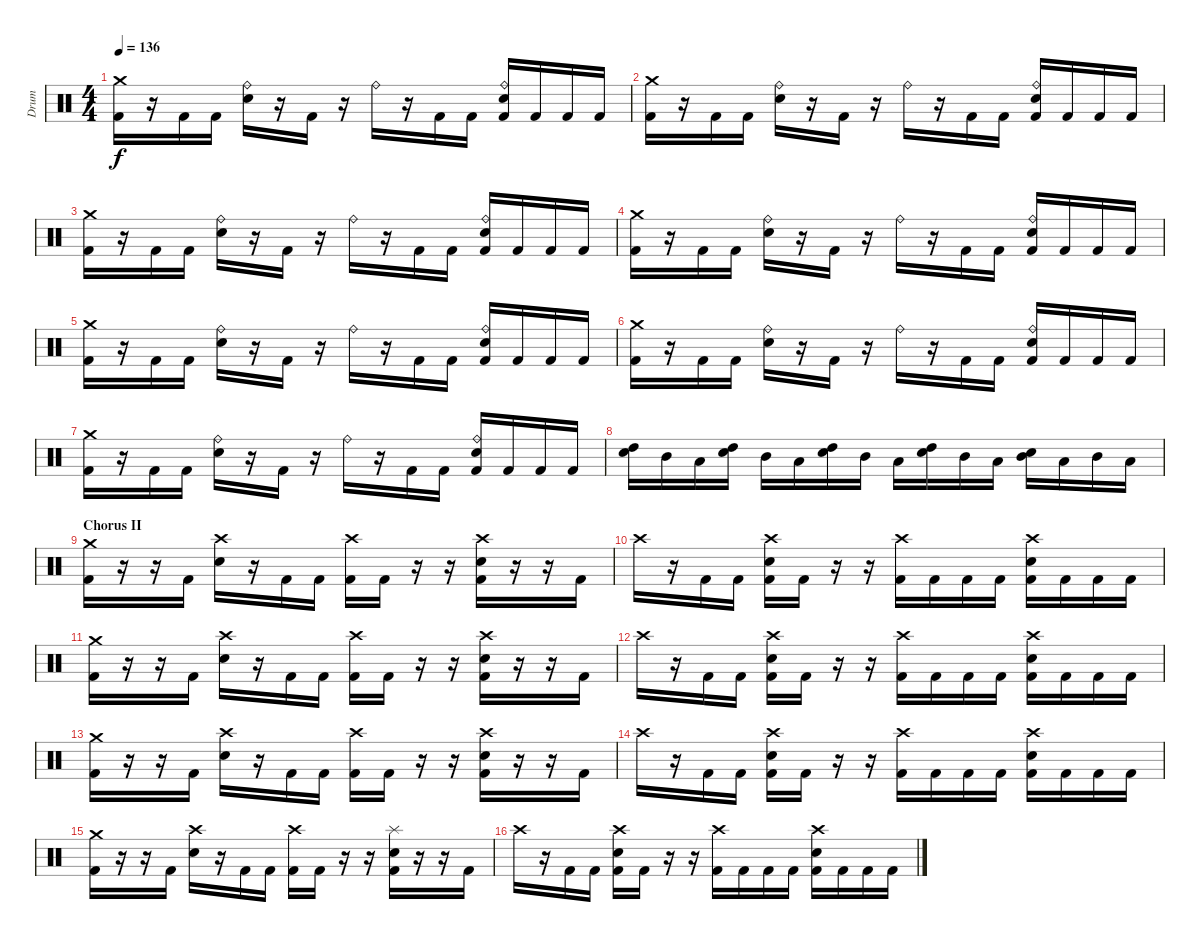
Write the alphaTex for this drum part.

\track ("Drum" "Drum") {instrument percussion}
\staff {score}
\articulation defaults
\ts (4 4)
\tempo 136
\clef neutral
\ks c
("Crash medium (hit)" "Kick (hit) 2").16{dy f} r.16 "Kick (hit) 2".16 "Kick (hit) 2".16 ("Ride (bell)" "Snare (hit) 2").16 r.16 "Kick (hit) 2".16 r.16 "Ride (bell)".16 r.16 "Kick (hit) 2".16 "Kick (hit) 2".16 ("Ride (bell)" "Snare (hit) 2" "Kick (hit) 2").16 "Kick (hit) 2".16 "Kick (hit) 2".16 "Kick (hit) 2".16 |
("Crash medium (hit)" "Kick (hit) 2").16 r.16 "Kick (hit) 2".16 "Kick (hit) 2".16 ("Ride (bell)" "Snare (hit) 2").16 r.16 "Kick (hit) 2".16 r.16 "Ride (bell)".16 r.16 "Kick (hit) 2".16 "Kick (hit) 2".16 ("Ride (bell)" "Snare (hit) 2" "Kick (hit) 2").16 "Kick (hit) 2".16 "Kick (hit) 2".16 "Kick (hit) 2".16 |
("Crash medium (hit)" "Kick (hit) 2").16 r.16 "Kick (hit) 2".16 "Kick (hit) 2".16 ("Ride (bell)" "Snare (hit) 2").16 r.16 "Kick (hit) 2".16 r.16 "Ride (bell)".16 r.16 "Kick (hit) 2".16 "Kick (hit) 2".16 ("Ride (bell)" "Snare (hit) 2" "Kick (hit) 2").16 "Kick (hit) 2".16 "Kick (hit) 2".16 "Kick (hit) 2".16 |
("Crash medium (hit)" "Kick (hit) 2").16 r.16 "Kick (hit) 2".16 "Kick (hit) 2".16 ("Ride (bell)" "Snare (hit) 2").16 r.16 "Kick (hit) 2".16 r.16 "Ride (bell)".16 r.16 "Kick (hit) 2".16 "Kick (hit) 2".16 ("Ride (bell)" "Snare (hit) 2" "Kick (hit) 2").16 "Kick (hit) 2".16 "Kick (hit) 2".16 "Kick (hit) 2".16 |
("Crash medium (hit)" "Kick (hit) 2").16 r.16 "Kick (hit) 2".16 "Kick (hit) 2".16 ("Ride (bell)" "Snare (hit) 2").16 r.16 "Kick (hit) 2".16 r.16 "Ride (bell)".16 r.16 "Kick (hit) 2".16 "Kick (hit) 2".16 ("Ride (bell)" "Snare (hit) 2" "Kick (hit) 2").16 "Kick (hit) 2".16 "Kick (hit) 2".16 "Kick (hit) 2".16 |
("Crash medium (hit)" "Kick (hit) 2").16 r.16 "Kick (hit) 2".16 "Kick (hit) 2".16 ("Ride (bell)" "Snare (hit) 2").16 r.16 "Kick (hit) 2".16 r.16 "Ride (bell)".16 r.16 "Kick (hit) 2".16 "Kick (hit) 2".16 ("Ride (bell)" "Snare (hit) 2" "Kick (hit) 2").16 "Kick (hit) 2".16 "Kick (hit) 2".16 "Kick (hit) 2".16 |
("Crash medium (hit)" "Kick (hit) 2").16 r.16 "Kick (hit) 2".16 "Kick (hit) 2".16 ("Ride (bell)" "Snare (hit) 2").16 r.16 "Kick (hit) 2".16 r.16 "Ride (bell)".16 r.16 "Kick (hit) 2".16 "Kick (hit) 2".16 ("Ride (bell)" "Snare (hit) 2" "Kick (hit) 2").16 "Kick (hit) 2".16 "Kick (hit) 2".16 "Kick (hit) 2".16 |
("Snare (hit) 2" "High Tom (hit)").16 "Mid Tom (hit)".16 "Low Tom (hit)".16 ("Snare (hit) 2" "High Tom (hit)").16 "Mid Tom (hit)".16 "Low Tom (hit)".16 ("Snare (hit) 2" "High Tom (hit)").16 "Mid Tom (hit)".16 "Low Tom (hit)".16 ("Snare (hit) 2" "High Tom (hit)").16 "Mid Tom (hit)".16 "Low Tom (hit)".16 ("Snare (hit) 2" "Mid Tom (hit)").16 "Low Tom (hit)".16 "Mid Tom (hit)".16 "Low Tom (hit)".16 |
\section ("" "Chorus II")
("Crash medium (hit)" "Kick (hit) 2").16 r.16 r.16 "Kick (hit) 2".16 ("Crash high (hit)" "Snare (hit) 2").16 r.16 "Kick (hit) 2".16 "Kick (hit) 2".16 ("Crash high (hit)" "Kick (hit) 2").16 "Kick (hit) 2".16 r.16 r.16 ("Crash high (hit)" "Snare (hit) 2" "Kick (hit) 2").16 r.16 r.16 "Kick (hit) 2".16 |
"Crash high (hit)".16 r.16 "Kick (hit) 2".16 "Kick (hit) 2".16 ("Crash high (hit)" "Snare (hit) 2" "Kick (hit) 2").16 "Kick (hit) 2".16 r.16 r.16 ("Crash high (hit)" "Kick (hit) 2").16 "Kick (hit) 2".16 "Kick (hit) 2".16 "Kick (hit) 2".16 ("Crash high (hit)" "Snare (hit) 2" "Kick (hit) 2").16 "Kick (hit) 2".16 "Kick (hit) 2".16 "Kick (hit) 2".16 |
("Crash medium (hit)" "Kick (hit) 2").16 r.16 r.16 "Kick (hit) 2".16 ("Crash high (hit)" "Snare (hit) 2").16 r.16 "Kick (hit) 2".16 "Kick (hit) 2".16 ("Crash high (hit)" "Kick (hit) 2").16 "Kick (hit) 2".16 r.16 r.16 ("Crash high (hit)" "Snare (hit) 2" "Kick (hit) 2").16 r.16 r.16 "Kick (hit) 2".16 |
"Crash high (hit)".16 r.16 "Kick (hit) 2".16 "Kick (hit) 2".16 ("Crash high (hit)" "Snare (hit) 2" "Kick (hit) 2").16 "Kick (hit) 2".16 r.16 r.16 ("Crash high (hit)" "Kick (hit) 2").16 "Kick (hit) 2".16 "Kick (hit) 2".16 "Kick (hit) 2".16 ("Crash high (hit)" "Snare (hit) 2" "Kick (hit) 2").16 "Kick (hit) 2".16 "Kick (hit) 2".16 "Kick (hit) 2".16 |
("Crash medium (hit)" "Kick (hit) 2").16 r.16 r.16 "Kick (hit) 2".16 ("Crash high (hit)" "Snare (hit) 2").16 r.16 "Kick (hit) 2".16 "Kick (hit) 2".16 ("Crash high (hit)" "Kick (hit) 2").16 "Kick (hit) 2".16 r.16 r.16 ("Crash high (hit)" "Snare (hit) 2" "Kick (hit) 2").16 r.16 r.16 "Kick (hit) 2".16 |
"Crash high (hit)".16 r.16 "Kick (hit) 2".16 "Kick (hit) 2".16 ("Crash high (hit)" "Snare (hit) 2" "Kick (hit) 2").16 "Kick (hit) 2".16 r.16 r.16 ("Crash high (hit)" "Kick (hit) 2").16 "Kick (hit) 2".16 "Kick (hit) 2".16 "Kick (hit) 2".16 ("Crash high (hit)" "Snare (hit) 2" "Kick (hit) 2").16 "Kick (hit) 2".16 "Kick (hit) 2".16 "Kick (hit) 2".16 |
("Crash medium (hit)" "Kick (hit) 2").16 r.16 r.16 "Kick (hit) 2".16 ("Crash high (hit)" "Snare (hit) 2").16 r.16 "Kick (hit) 2".16 "Kick (hit) 2".16 ("Crash high (hit)" "Kick (hit) 2").16 "Kick (hit) 2".16 r.16 r.16 ("Splash (hit)" "Snare (hit) 2" "Kick (hit) 2").16 r.16 r.16 "Kick (hit) 2".16 |
"Crash high (hit)".16 r.16 "Kick (hit) 2".16 "Kick (hit) 2".16 ("Crash high (hit)" "Snare (hit) 2" "Kick (hit) 2").16 "Kick (hit) 2".16 r.16 r.16 ("Crash high (hit)" "Kick (hit) 2").16 "Kick (hit) 2".16 "Kick (hit) 2".16 "Kick (hit) 2".16 ("Crash high (hit)" "Snare (hit) 2" "Kick (hit) 2").16 "Kick (hit) 2".16 "Kick (hit) 2".16 "Kick (hit) 2".16
